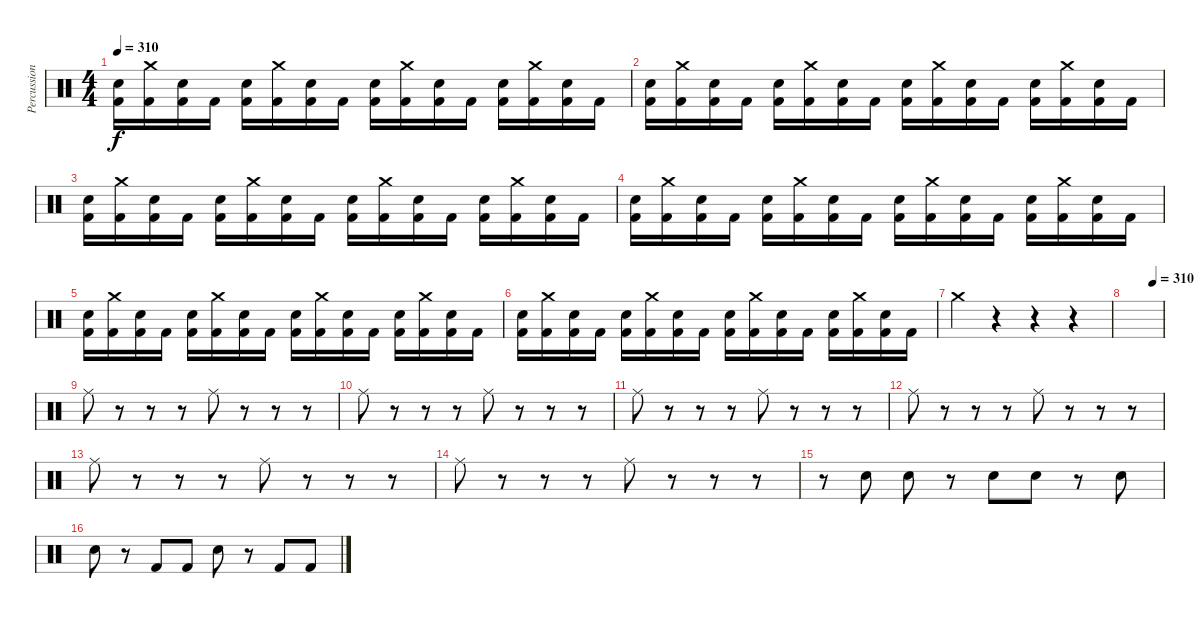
\track ("Percussions" "Percussion") {instrument percussion}
\staff {score}
\articulation defaults
\ts (4 4)
\tempo 310
\clef neutral
\ks c
("Electric Snare (hit)" "Kick (hit) 2").16{dy f} ("Crash medium (hit)" "Kick (hit) 2").16 ("Electric Snare (hit)" "Kick (hit) 2").16 "Kick (hit) 2".16 ("Electric Snare (hit)" "Kick (hit) 2").16 ("Crash medium (hit)" "Kick (hit) 2").16 ("Electric Snare (hit)" "Kick (hit) 2").16 "Kick (hit) 2".16 ("Electric Snare (hit)" "Kick (hit) 2").16 ("Crash medium (hit)" "Kick (hit) 2").16 ("Electric Snare (hit)" "Kick (hit) 2").16 "Kick (hit) 2".16 ("Electric Snare (hit)" "Kick (hit) 2").16 ("Crash medium (hit)" "Kick (hit) 2").16 ("Electric Snare (hit)" "Kick (hit) 2").16 "Kick (hit) 2".16 |
("Electric Snare (hit)" "Kick (hit) 2").16 ("Crash medium (hit)" "Kick (hit) 2").16 ("Electric Snare (hit)" "Kick (hit) 2").16 "Kick (hit) 2".16 ("Electric Snare (hit)" "Kick (hit) 2").16 ("Crash medium (hit)" "Kick (hit) 2").16 ("Electric Snare (hit)" "Kick (hit) 2").16 "Kick (hit) 2".16 ("Electric Snare (hit)" "Kick (hit) 2").16 ("Crash medium (hit)" "Kick (hit) 2").16 ("Electric Snare (hit)" "Kick (hit) 2").16 "Kick (hit) 2".16 ("Electric Snare (hit)" "Kick (hit) 2").16 ("Crash medium (hit)" "Kick (hit) 2").16 ("Electric Snare (hit)" "Kick (hit) 2").16 "Kick (hit) 2".16 |
("Electric Snare (hit)" "Kick (hit) 2").16 ("Crash medium (hit)" "Kick (hit) 2").16 ("Electric Snare (hit)" "Kick (hit) 2").16 "Kick (hit) 2".16 ("Electric Snare (hit)" "Kick (hit) 2").16 ("Crash medium (hit)" "Kick (hit) 2").16 ("Electric Snare (hit)" "Kick (hit) 2").16 "Kick (hit) 2".16 ("Electric Snare (hit)" "Kick (hit) 2").16 ("Crash medium (hit)" "Kick (hit) 2").16 ("Electric Snare (hit)" "Kick (hit) 2").16 "Kick (hit) 2".16 ("Electric Snare (hit)" "Kick (hit) 2").16 ("Crash medium (hit)" "Kick (hit) 2").16 ("Electric Snare (hit)" "Kick (hit) 2").16 "Kick (hit) 2".16 |
("Electric Snare (hit)" "Kick (hit) 2").16 ("Crash medium (hit)" "Kick (hit) 2").16 ("Electric Snare (hit)" "Kick (hit) 2").16 "Kick (hit) 2".16 ("Electric Snare (hit)" "Kick (hit) 2").16 ("Crash medium (hit)" "Kick (hit) 2").16 ("Electric Snare (hit)" "Kick (hit) 2").16 "Kick (hit) 2".16 ("Electric Snare (hit)" "Kick (hit) 2").16 ("Crash medium (hit)" "Kick (hit) 2").16 ("Electric Snare (hit)" "Kick (hit) 2").16 "Kick (hit) 2".16 ("Electric Snare (hit)" "Kick (hit) 2").16 ("Crash medium (hit)" "Kick (hit) 2").16 ("Electric Snare (hit)" "Kick (hit) 2").16 "Kick (hit) 2".16 |
("Electric Snare (hit)" "Kick (hit) 2").16 ("Crash medium (hit)" "Kick (hit) 2").16 ("Electric Snare (hit)" "Kick (hit) 2").16 "Kick (hit) 2".16 ("Electric Snare (hit)" "Kick (hit) 2").16 ("Crash medium (hit)" "Kick (hit) 2").16 ("Electric Snare (hit)" "Kick (hit) 2").16 "Kick (hit) 2".16 ("Electric Snare (hit)" "Kick (hit) 2").16 ("Crash medium (hit)" "Kick (hit) 2").16 ("Electric Snare (hit)" "Kick (hit) 2").16 "Kick (hit) 2".16 ("Electric Snare (hit)" "Kick (hit) 2").16 ("Crash medium (hit)" "Kick (hit) 2").16 ("Electric Snare (hit)" "Kick (hit) 2").16 "Kick (hit) 2".16 |
("Electric Snare (hit)" "Kick (hit) 2").16 ("Crash medium (hit)" "Kick (hit) 2").16 ("Electric Snare (hit)" "Kick (hit) 2").16 "Kick (hit) 2".16 ("Electric Snare (hit)" "Kick (hit) 2").16 ("Crash medium (hit)" "Kick (hit) 2").16 ("Electric Snare (hit)" "Kick (hit) 2").16 "Kick (hit) 2".16 ("Electric Snare (hit)" "Kick (hit) 2").16 ("Crash medium (hit)" "Kick (hit) 2").16 ("Electric Snare (hit)" "Kick (hit) 2").16 "Kick (hit) 2".16 ("Electric Snare (hit)" "Kick (hit) 2").16 ("Crash medium (hit)" "Kick (hit) 2").16 ("Electric Snare (hit)" "Kick (hit) 2").16 "Kick (hit) 2".16 |
"Crash medium (hit)".4 r.4 r.4 r.4 |
\tempo (310 0.75)
|
"Ride (middle)".8 r.8 r.8 r.8 "Ride (middle)".8 r.8 r.8 r.8 |
"Ride (middle)".8 r.8 r.8 r.8 "Ride (middle)".8 r.8 r.8 r.8 |
"Ride (middle)".8 r.8 r.8 r.8 "Ride (middle)".8 r.8 r.8 r.8 |
"Ride (middle)".8 r.8 r.8 r.8 "Ride (middle)".8 r.8 r.8 r.8 |
"Ride (middle)".8 r.8 r.8 r.8 "Ride (middle)".8 r.8 r.8 r.8 |
"Ride (middle)".8 r.8 r.8 r.8 "Ride (middle)".8 r.8 r.8 r.8 |
r.8 "Snare (hit) 2".8 "Snare (hit) 2".8 r.8 "Snare (hit) 2".8 "Snare (hit) 2".8 r.8 "Snare (hit) 2".8 |
"Snare (hit) 2".8 r.8 "Kick (hit) 2".8 "Kick (hit) 2".8 "Snare (hit) 2".8 r.8 "Kick (hit) 2".8 "Kick (hit) 2".8
